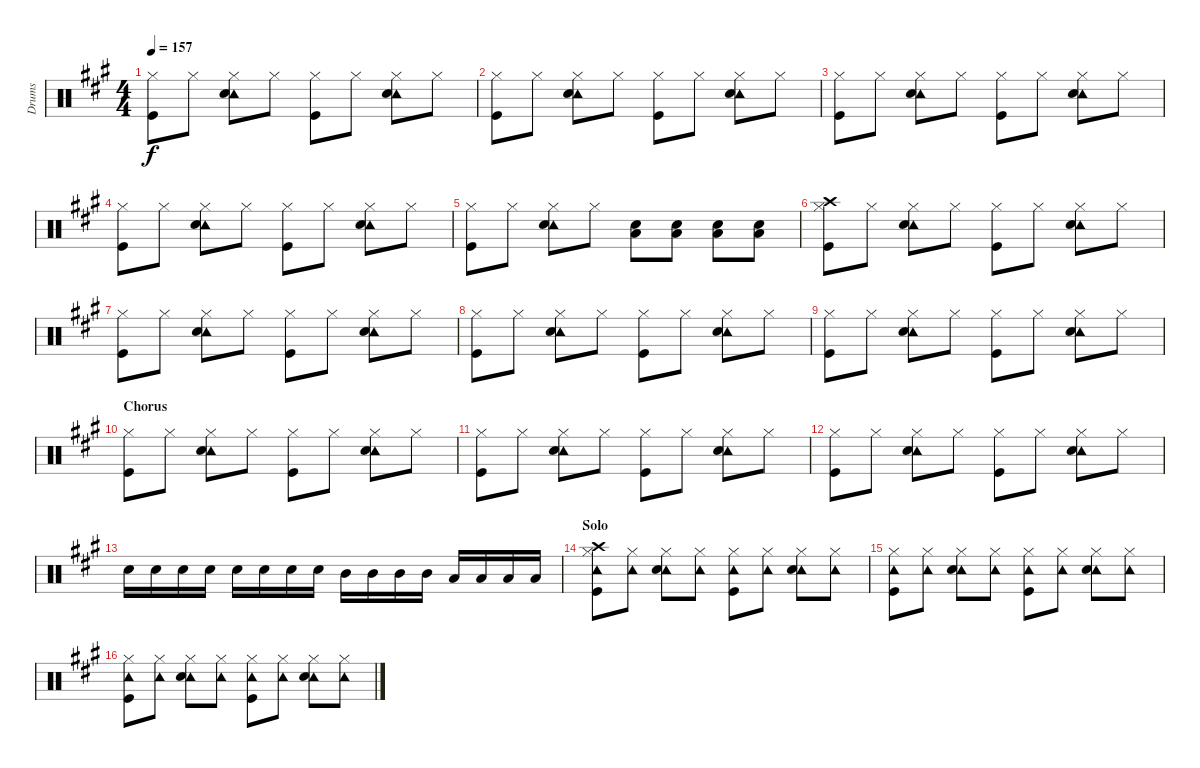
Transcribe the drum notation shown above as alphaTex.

\track ("Drums" "Drums") {instrument percussion}
\staff {score}
\articulation defaults
\ts (4 4)
\tempo 157
\clef neutral
\ks a
("Hi-Hat (closed)" "Kick (hit)").8{dy f} "Hi-Hat (closed)".8 ("Hi-Hat (closed)" "Tambourine (hit)" "Electric Snare (hit)").8 "Hi-Hat (closed)".8 ("Hi-Hat (closed)" "Kick (hit)").8 "Hi-Hat (closed)".8 ("Hi-Hat (closed)" "Tambourine (hit)" "Electric Snare (hit)").8 "Hi-Hat (closed)".8 |
("Hi-Hat (closed)" "Kick (hit)").8 "Hi-Hat (closed)".8 ("Hi-Hat (closed)" "Tambourine (hit)" "Electric Snare (hit)").8 "Hi-Hat (closed)".8 ("Hi-Hat (closed)" "Kick (hit)").8 "Hi-Hat (closed)".8 ("Hi-Hat (closed)" "Tambourine (hit)" "Electric Snare (hit)").8 "Hi-Hat (closed)".8 |
("Hi-Hat (closed)" "Kick (hit)").8 "Hi-Hat (closed)".8 ("Hi-Hat (closed)" "Tambourine (hit)" "Electric Snare (hit)").8 "Hi-Hat (closed)".8 ("Hi-Hat (closed)" "Kick (hit)").8 "Hi-Hat (closed)".8 ("Hi-Hat (closed)" "Tambourine (hit)" "Electric Snare (hit)").8 "Hi-Hat (closed)".8 |
("Hi-Hat (closed)" "Kick (hit)").8 "Hi-Hat (closed)".8 ("Hi-Hat (closed)" "Tambourine (hit)" "Electric Snare (hit)").8 "Hi-Hat (closed)".8 ("Hi-Hat (closed)" "Kick (hit)").8 "Hi-Hat (closed)".8 ("Hi-Hat (closed)" "Tambourine (hit)" "Electric Snare (hit)").8 "Hi-Hat (closed)".8 |
("Hi-Hat (closed)" "Kick (hit)").8 "Hi-Hat (closed)".8 ("Hi-Hat (closed)" "Tambourine (hit)" "Electric Snare (hit)").8 "Hi-Hat (closed)".8 ("Electric Snare (hit)" "Low Floor Tom (hit)").8 ("Electric Snare (hit)" "Low Floor Tom (hit)").8 ("Electric Snare (hit)" "Low Floor Tom (hit)").8 ("Electric Snare (hit)" "Low Floor Tom (hit)").8 |
("Hi-Hat (closed)" "Crash high (hit)" "Kick (hit)").8 "Hi-Hat (closed)".8 ("Hi-Hat (closed)" "Tambourine (hit)" "Electric Snare (hit)").8 "Hi-Hat (closed)".8 ("Hi-Hat (closed)" "Kick (hit)").8 "Hi-Hat (closed)".8 ("Hi-Hat (closed)" "Tambourine (hit)" "Electric Snare (hit)").8 "Hi-Hat (closed)".8 |
("Hi-Hat (closed)" "Kick (hit)").8 "Hi-Hat (closed)".8 ("Hi-Hat (closed)" "Tambourine (hit)" "Electric Snare (hit)").8 "Hi-Hat (closed)".8 ("Hi-Hat (closed)" "Kick (hit)").8 "Hi-Hat (closed)".8 ("Hi-Hat (closed)" "Tambourine (hit)" "Electric Snare (hit)").8 "Hi-Hat (closed)".8 |
("Hi-Hat (closed)" "Kick (hit)").8 "Hi-Hat (closed)".8 ("Hi-Hat (closed)" "Tambourine (hit)" "Electric Snare (hit)").8 "Hi-Hat (closed)".8 ("Hi-Hat (closed)" "Kick (hit)").8 "Hi-Hat (closed)".8 ("Hi-Hat (closed)" "Tambourine (hit)" "Electric Snare (hit)").8 "Hi-Hat (closed)".8 |
("Hi-Hat (closed)" "Kick (hit)").8 "Hi-Hat (closed)".8 ("Hi-Hat (closed)" "Tambourine (hit)" "Electric Snare (hit)").8 "Hi-Hat (closed)".8 ("Hi-Hat (closed)" "Kick (hit)").8 "Hi-Hat (closed)".8 ("Hi-Hat (closed)" "Tambourine (hit)" "Electric Snare (hit)").8 "Hi-Hat (closed)".8 |
\section ("" "Chorus")
("Hi-Hat (closed)" "Kick (hit)").8 "Hi-Hat (closed)".8 ("Hi-Hat (closed)" "Tambourine (hit)" "Electric Snare (hit)").8 "Hi-Hat (closed)".8 ("Hi-Hat (closed)" "Kick (hit)").8 "Hi-Hat (closed)".8 ("Hi-Hat (closed)" "Tambourine (hit)" "Electric Snare (hit)").8 "Hi-Hat (closed)".8 |
("Hi-Hat (closed)" "Kick (hit)").8 "Hi-Hat (closed)".8 ("Hi-Hat (closed)" "Tambourine (hit)" "Electric Snare (hit)").8 "Hi-Hat (closed)".8 ("Hi-Hat (closed)" "Kick (hit)").8 "Hi-Hat (closed)".8 ("Hi-Hat (closed)" "Tambourine (hit)" "Electric Snare (hit)").8 "Hi-Hat (closed)".8 |
("Hi-Hat (closed)" "Kick (hit)").8 "Hi-Hat (closed)".8 ("Hi-Hat (closed)" "Tambourine (hit)" "Electric Snare (hit)").8 "Hi-Hat (closed)".8 ("Hi-Hat (closed)" "Kick (hit)").8 "Hi-Hat (closed)".8 ("Hi-Hat (closed)" "Tambourine (hit)" "Electric Snare (hit)").8 "Hi-Hat (closed)".8 |
"Electric Snare (hit)".16 "Electric Snare (hit)".16 "Electric Snare (hit)".16 "Electric Snare (hit)".16 "Electric Snare (hit)".16 "Electric Snare (hit)".16 "Electric Snare (hit)".16 "Electric Snare (hit)".16 "Mid Tom (hit)".16 "Mid Tom (hit)".16 "Mid Tom (hit)".16 "Mid Tom (hit)".16 "Low Tom (hit)".16 "Low Tom (hit)".16 "Low Tom (hit)".16 "Low Tom (hit)".16 |
\section ("" "Solo")
("Hi-Hat (closed)" "Crash high (hit)" "Tambourine (hit)" "Kick (hit)").8 ("Hi-Hat (closed)" "Tambourine (hit)").8 ("Hi-Hat (closed)" "Tambourine (hit)" "Electric Snare (hit)").8 ("Hi-Hat (closed)" "Tambourine (hit)").8 ("Hi-Hat (closed)" "Tambourine (hit)" "Kick (hit)").8 ("Hi-Hat (closed)" "Tambourine (hit)").8 ("Hi-Hat (closed)" "Tambourine (hit)" "Electric Snare (hit)").8 ("Hi-Hat (closed)" "Tambourine (hit)").8 |
("Hi-Hat (closed)" "Tambourine (hit)" "Kick (hit)").8 ("Hi-Hat (closed)" "Tambourine (hit)").8 ("Hi-Hat (closed)" "Tambourine (hit)" "Electric Snare (hit)").8 ("Hi-Hat (closed)" "Tambourine (hit)").8 ("Hi-Hat (closed)" "Tambourine (hit)" "Kick (hit)").8 ("Hi-Hat (closed)" "Tambourine (hit)").8 ("Hi-Hat (closed)" "Tambourine (hit)" "Electric Snare (hit)").8 ("Hi-Hat (closed)" "Tambourine (hit)").8 |
("Hi-Hat (closed)" "Tambourine (hit)" "Kick (hit)").8 ("Hi-Hat (closed)" "Tambourine (hit)").8 ("Hi-Hat (closed)" "Tambourine (hit)" "Electric Snare (hit)").8 ("Hi-Hat (closed)" "Tambourine (hit)").8 ("Hi-Hat (closed)" "Tambourine (hit)" "Kick (hit)").8 ("Hi-Hat (closed)" "Tambourine (hit)").8 ("Hi-Hat (closed)" "Tambourine (hit)" "Electric Snare (hit)").8 ("Hi-Hat (closed)" "Tambourine (hit)").8
